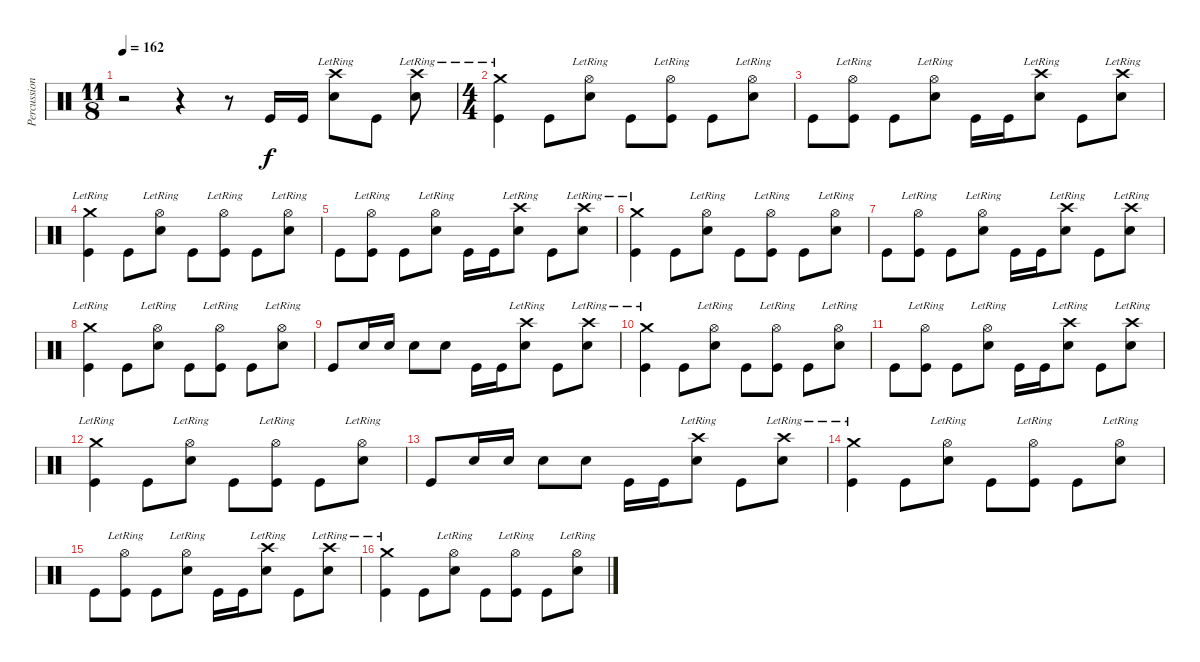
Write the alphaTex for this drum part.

\track ("Percussions" "Percussion") {instrument percussion}
\staff {score}
\articulation defaults
\ts (11 8)
\tempo 162
\clef neutral
\ks c
r.2{dy f} r.4 r.8 "Kick (hit)".16 "Kick (hit)".16 ("Crash high (hit)"{lr} "Snare (hit) 2").8 "Kick (hit)".8 ("Crash high (hit)"{lr} "Snare (hit) 2").8 |
\ts (4 4)
("Crash medium (hit)"{lr} "Kick (hit)").4 "Kick (hit)".8 ("Hi-Hat (open)"{lr} "Snare (hit) 2").8 "Kick (hit)".8 ("Hi-Hat (open)"{lr} "Kick (hit)").8 "Kick (hit)".8 ("Hi-Hat (open)"{lr} "Snare (hit) 2").8 |
"Kick (hit)".8 ("Hi-Hat (open)"{lr} "Kick (hit)").8 "Kick (hit)".8 ("Hi-Hat (open)"{lr} "Snare (hit) 2").8 "Kick (hit)".16 "Kick (hit)".16 ("Crash high (hit)"{lr} "Snare (hit) 2").8 "Kick (hit)".8 ("Crash high (hit)"{lr} "Snare (hit) 2").8 |
("Crash medium (hit)"{lr} "Kick (hit)").4 "Kick (hit)".8 ("Hi-Hat (open)"{lr} "Snare (hit) 2").8 "Kick (hit)".8 ("Hi-Hat (open)"{lr} "Kick (hit)").8 "Kick (hit)".8 ("Hi-Hat (open)"{lr} "Snare (hit) 2").8 |
"Kick (hit)".8 ("Hi-Hat (open)"{lr} "Kick (hit)").8 "Kick (hit)".8 ("Hi-Hat (open)"{lr} "Snare (hit) 2").8 "Kick (hit)".16 "Kick (hit)".16 ("Crash high (hit)"{lr} "Snare (hit) 2").8 "Kick (hit)".8 ("Crash high (hit)"{lr} "Snare (hit) 2").8 |
("Crash medium (hit)"{lr} "Kick (hit)").4 "Kick (hit)".8 ("Hi-Hat (open)"{lr} "Snare (hit) 2").8 "Kick (hit)".8 ("Hi-Hat (open)"{lr} "Kick (hit)").8 "Kick (hit)".8 ("Hi-Hat (open)"{lr} "Snare (hit) 2").8 |
"Kick (hit)".8 ("Hi-Hat (open)"{lr} "Kick (hit)").8 "Kick (hit)".8 ("Hi-Hat (open)"{lr} "Snare (hit) 2").8 "Kick (hit)".16 "Kick (hit)".16 ("Crash high (hit)"{lr} "Snare (hit) 2").8 "Kick (hit)".8 ("Crash high (hit)"{lr} "Snare (hit) 2").8 |
("Crash medium (hit)"{lr} "Kick (hit)").4 "Kick (hit)".8 ("Hi-Hat (open)"{lr} "Snare (hit) 2").8 "Kick (hit)".8 ("Hi-Hat (open)"{lr} "Kick (hit)").8 "Kick (hit)".8 ("Hi-Hat (open)"{lr} "Snare (hit) 2").8 |
"Kick (hit)".8 "Snare (hit) 2".16 "Snare (hit) 2".16 "Snare (hit) 2".8 "Snare (hit) 2".8 "Kick (hit)".16 "Kick (hit)".16 ("Crash high (hit)"{lr} "Snare (hit) 2").8 "Kick (hit)".8 ("Crash high (hit)"{lr} "Snare (hit) 2").8 |
("Crash medium (hit)"{lr} "Kick (hit)").4 "Kick (hit)".8 ("Hi-Hat (open)"{lr} "Snare (hit) 2").8 "Kick (hit)".8 ("Hi-Hat (open)"{lr} "Kick (hit)").8 "Kick (hit)".8 ("Hi-Hat (open)"{lr} "Snare (hit) 2").8 |
"Kick (hit)".8 ("Hi-Hat (open)"{lr} "Kick (hit)").8 "Kick (hit)".8 ("Hi-Hat (open)"{lr} "Snare (hit) 2").8 "Kick (hit)".16 "Kick (hit)".16 ("Crash high (hit)"{lr} "Snare (hit) 2").8 "Kick (hit)".8 ("Crash high (hit)"{lr} "Snare (hit) 2").8 |
("Crash medium (hit)"{lr} "Kick (hit)").4 "Kick (hit)".8 ("Hi-Hat (open)"{lr} "Snare (hit) 2").8 "Kick (hit)".8 ("Hi-Hat (open)"{lr} "Kick (hit)").8 "Kick (hit)".8 ("Hi-Hat (open)"{lr} "Snare (hit) 2").8 |
"Kick (hit)".8 "Snare (hit) 2".16 "Snare (hit) 2".16 "Snare (hit) 2".8 "Snare (hit) 2".8 "Kick (hit)".16 "Kick (hit)".16 ("Crash high (hit)"{lr} "Snare (hit) 2").8 "Kick (hit)".8 ("Crash high (hit)"{lr} "Snare (hit) 2").8 |
("Crash medium (hit)"{lr} "Kick (hit)").4 "Kick (hit)".8 ("Hi-Hat (open)"{lr} "Snare (hit) 2").8 "Kick (hit)".8 ("Hi-Hat (open)"{lr} "Kick (hit)").8 "Kick (hit)".8 ("Hi-Hat (open)"{lr} "Snare (hit) 2").8 |
"Kick (hit)".8 ("Hi-Hat (open)"{lr} "Kick (hit)").8 "Kick (hit)".8 ("Hi-Hat (open)"{lr} "Snare (hit) 2").8 "Kick (hit)".16 "Kick (hit)".16 ("Crash high (hit)"{lr} "Snare (hit) 2").8 "Kick (hit)".8 ("Crash high (hit)"{lr} "Snare (hit) 2").8 |
("Crash medium (hit)"{lr} "Kick (hit)").4 "Kick (hit)".8 ("Hi-Hat (open)"{lr} "Snare (hit) 2").8 "Kick (hit)".8 ("Hi-Hat (open)"{lr} "Kick (hit)").8 "Kick (hit)".8 ("Hi-Hat (open)"{lr} "Snare (hit) 2").8
